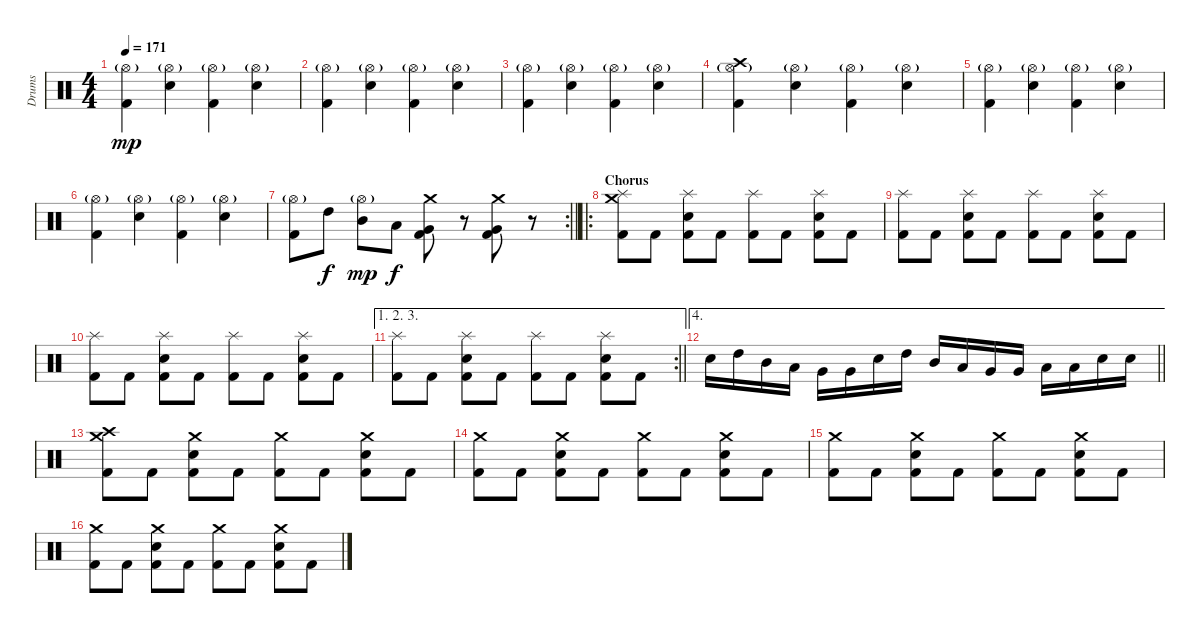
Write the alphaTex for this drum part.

\track ("Drums" "Drums") {instrument percussion}
\staff {score}
\articulation defaults
\ts (4 4)
\tempo 171
\clef neutral
\ks c
("Kick (hit) 2" "Hi-Hat (open)"{g}).4{dy mp} ("Snare (hit) 2" "Hi-Hat (open)"{g}).4 ("Kick (hit) 2" "Hi-Hat (open)"{g}).4 ("Snare (hit) 2" "Hi-Hat (open)"{g}).4 |
("Kick (hit) 2" "Hi-Hat (open)"{g}).4 ("Snare (hit) 2" "Hi-Hat (open)"{g}).4 ("Kick (hit) 2" "Hi-Hat (open)"{g}).4 ("Snare (hit) 2" "Hi-Hat (open)"{g}).4 |
("Kick (hit) 2" "Hi-Hat (open)"{g}).4 ("Snare (hit) 2" "Hi-Hat (open)"{g}).4 ("Kick (hit) 2" "Hi-Hat (open)"{g}).4 ("Snare (hit) 2" "Hi-Hat (open)"{g}).4 |
("Kick (hit) 2" "Hi-Hat (open)"{g} "Crash high (hit)").4 ("Snare (hit) 2" "Hi-Hat (open)"{g}).4 ("Kick (hit) 2" "Hi-Hat (open)"{g}).4 ("Snare (hit) 2" "Hi-Hat (open)"{g}).4 |
("Kick (hit) 2" "Hi-Hat (open)"{g}).4 ("Snare (hit) 2" "Hi-Hat (open)"{g}).4 ("Kick (hit) 2" "Hi-Hat (open)"{g}).4 ("Snare (hit) 2" "Hi-Hat (open)"{g}).4 |
("Kick (hit) 2" "Hi-Hat (open)"{g}).4 ("Snare (hit) 2" "Hi-Hat (open)"{g}).4 ("Kick (hit) 2" "Hi-Hat (open)"{g}).4 ("Snare (hit) 2" "Hi-Hat (open)"{g}).4 |
\rc 2
\barLineRight lightlight
("Kick (hit) 2" "Hi-Hat (open)"{g}).8 "High Tom (hit)".8{dy f} ("Mid Tom (hit)" "Hi-Hat (open)"{g}).8{dy mp} "Low Tom (hit)".8{dy f} ("Kick (hit) 2" "Very Low Tom (hit)" "Crash medium (hit)").8 r.8 ("Kick (hit) 2" "Very Low Tom (hit)" "Crash medium (hit)").8 r.8 |
\ro
\section ("" "Chorus")
("Kick (hit) 2" "Splash (hit)" "Crash medium (hit)").8 "Kick (hit) 2".8 ("Kick (hit) 2" "Snare (hit) 2" "Splash (hit)").8 "Kick (hit) 2".8 ("Kick (hit) 2" "Splash (hit)").8 "Kick (hit) 2".8 ("Kick (hit) 2" "Snare (hit) 2" "Splash (hit)").8 "Kick (hit) 2".8 |
("Kick (hit) 2" "Splash (hit)").8 "Kick (hit) 2".8 ("Kick (hit) 2" "Snare (hit) 2" "Splash (hit)").8 "Kick (hit) 2".8 ("Kick (hit) 2" "Splash (hit)").8 "Kick (hit) 2".8 ("Kick (hit) 2" "Snare (hit) 2" "Splash (hit)").8 "Kick (hit) 2".8 |
("Kick (hit) 2" "Splash (hit)").8 "Kick (hit) 2".8 ("Kick (hit) 2" "Snare (hit) 2" "Splash (hit)").8 "Kick (hit) 2".8 ("Kick (hit) 2" "Splash (hit)").8 "Kick (hit) 2".8 ("Kick (hit) 2" "Snare (hit) 2" "Splash (hit)").8 "Kick (hit) 2".8 |
\ae (1 2 3)
\rc 2
\barLineRight lightlight
("Kick (hit) 2" "Splash (hit)").8 "Kick (hit) 2".8 ("Kick (hit) 2" "Snare (hit) 2" "Splash (hit)").8 "Kick (hit) 2".8 ("Kick (hit) 2" "Splash (hit)").8 "Kick (hit) 2".8 ("Kick (hit) 2" "Snare (hit) 2" "Splash (hit)").8 "Kick (hit) 2".8 |
\ae 4
\barLineRight lightlight "Snare (hit) 2".16 "High Tom (hit)".16 "Mid Tom (hit)".16 "Low Tom (hit)".16 "Very Low Tom (hit)".16 "Very Low Tom (hit)".16 "Snare (hit) 2".16 "High Tom (hit)".16 "Mid Tom (hit)".16 "Low Tom (hit)".16 "Very Low Tom (hit)".16 "Very Low Tom (hit)".16 "Low Floor Tom (hit)".16 "Low Floor Tom (hit)".16 "Snare (hit) 2".16 "Snare (hit) 2".16
|
\section ("" "")
("Kick (hit) 2" "Crash medium (hit)" "Crash high (hit)").8 "Kick (hit) 2".8 ("Kick (hit) 2" "Snare (hit) 2" "Crash medium (hit)").8 "Kick (hit) 2".8 ("Kick (hit) 2" "Crash medium (hit)").8 "Kick (hit) 2".8 ("Kick (hit) 2" "Snare (hit) 2" "Crash medium (hit)").8 "Kick (hit) 2".8 |
("Kick (hit) 2" "Crash medium (hit)").8 "Kick (hit) 2".8 ("Kick (hit) 2" "Snare (hit) 2" "Crash medium (hit)").8 "Kick (hit) 2".8 ("Kick (hit) 2" "Crash medium (hit)").8 "Kick (hit) 2".8 ("Kick (hit) 2" "Snare (hit) 2" "Crash medium (hit)").8 "Kick (hit) 2".8 |
("Kick (hit) 2" "Crash medium (hit)").8 "Kick (hit) 2".8 ("Kick (hit) 2" "Snare (hit) 2" "Crash medium (hit)").8 "Kick (hit) 2".8 ("Kick (hit) 2" "Crash medium (hit)").8 "Kick (hit) 2".8 ("Kick (hit) 2" "Snare (hit) 2" "Crash medium (hit)").8 "Kick (hit) 2".8 |
("Kick (hit) 2" "Crash medium (hit)").8 "Kick (hit) 2".8 ("Kick (hit) 2" "Snare (hit) 2" "Crash medium (hit)").8 "Kick (hit) 2".8 ("Kick (hit) 2" "Crash medium (hit)").8 "Kick (hit) 2".8 ("Kick (hit) 2" "Snare (hit) 2" "Crash medium (hit)").8 "Kick (hit) 2".8
